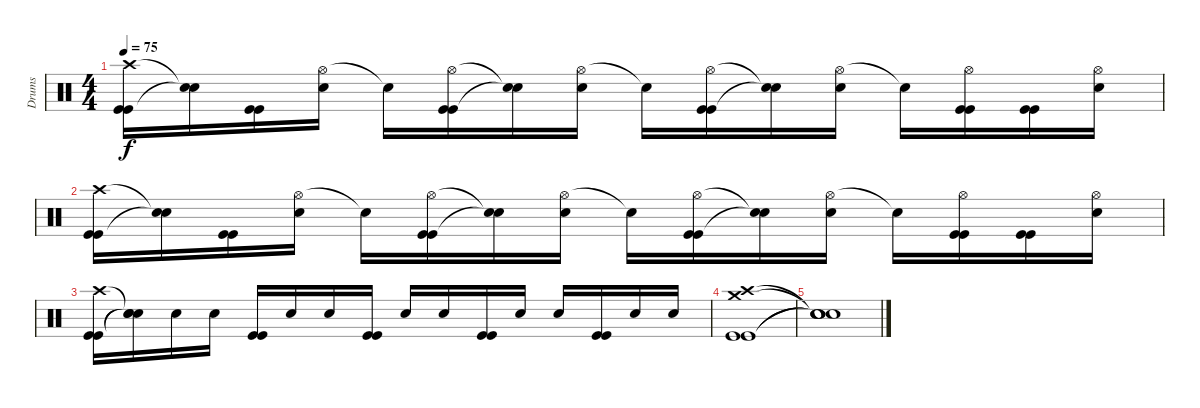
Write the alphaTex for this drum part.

\track ("Drums" "Drums") {instrument percussion}
\staff {score}
\articulation defaults
\ts (4 4)
\tempo 75
\clef neutral
\ks c
("Crash high (hit)" "Kick (hit)" "Kick (hit)").16{dy f} ("Snare (hit)"{t} "Snare (hit)"{t}).16 ("Kick (hit)" "Kick (hit)").16 ("Hi-Hat (open)" "Snare (hit) 2").16 "Snare (hit)"{t}.16 ("Hi-Hat (open)" "Kick (hit)" "Kick (hit)").16 ("Snare (hit)"{t} "Snare (hit)"{t}).16 ("Hi-Hat (open)" "Snare (hit) 2").16 "Snare (hit)"{t}.16 ("Hi-Hat (open)" "Kick (hit)" "Kick (hit)").16 ("Snare (hit)"{t} "Snare (hit)"{t}).16 ("Hi-Hat (open)" "Snare (hit) 2").16 "Snare (hit)"{t}.16 ("Hi-Hat (open)" "Kick (hit)" "Kick (hit)").16 ("Kick (hit)" "Kick (hit)").16 ("Hi-Hat (open)" "Snare (hit) 2").16 |
("Crash high (hit)" "Kick (hit)" "Kick (hit)").16 ("Snare (hit)"{t} "Snare (hit)"{t}).16 ("Kick (hit)" "Kick (hit)").16 ("Hi-Hat (open)" "Snare (hit) 2").16 "Snare (hit)"{t}.16 ("Hi-Hat (open)" "Kick (hit)" "Kick (hit)").16 ("Snare (hit)"{t} "Snare (hit)"{t}).16 ("Hi-Hat (open)" "Snare (hit) 2").16 "Snare (hit)"{t}.16 ("Hi-Hat (open)" "Kick (hit)" "Kick (hit)").16 ("Snare (hit)"{t} "Snare (hit)"{t}).16 ("Hi-Hat (open)" "Snare (hit) 2").16 "Snare (hit)"{t}.16 ("Hi-Hat (open)" "Kick (hit)" "Kick (hit)").16 ("Kick (hit)" "Kick (hit)").16 ("Hi-Hat (open)" "Snare (hit) 2").16 |
("Crash high (hit)" "Kick (hit)" "Kick (hit)").16 ("Snare (hit)"{t} "Snare (hit)"{t} "Snare (hit)"{t}).16 "Snare (hit) 2".16 "Snare (hit) 2".16 ("Kick (hit)" "Kick (hit)").16 "Snare (hit) 2".16 "Snare (hit) 2".16 ("Kick (hit)" "Kick (hit)").16 "Snare (hit) 2".16 "Snare (hit) 2".16 ("Kick (hit)" "Kick (hit)").16 "Snare (hit) 2".16 "Snare (hit) 2".16 ("Kick (hit)" "Kick (hit)").16 "Snare (hit) 2".16 "Snare (hit) 2".16 |
("Crash high (hit)" "Crash medium (hit)" "Kick (hit)" "Kick (hit)").1{volume 0} |
("Snare (hit)"{t} "Snare (hit)"{t} "Snare (hit)"{t} "Snare (hit)"{t}).1
